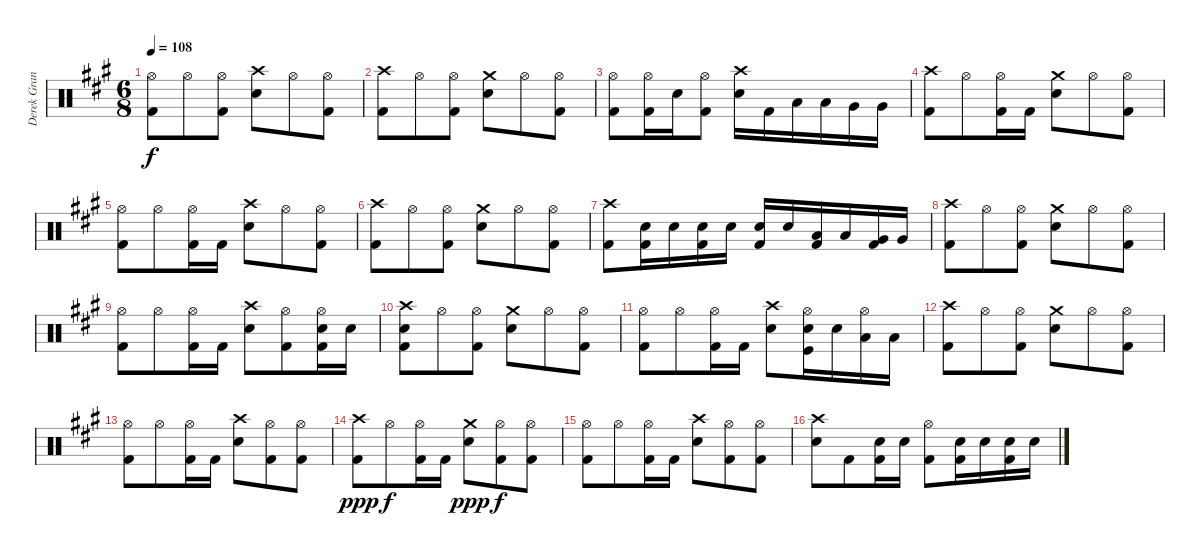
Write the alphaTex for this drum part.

\track ("Derek Grant - Drums" "Derek Gran") {instrument percussion}
\staff {score}
\articulation defaults
\ts (6 8)
\tempo 108
\clef neutral
\ks a
("Kick (hit) 2" "Hi-Hat (open)").8{dy f} "Hi-Hat (open)".8 ("Hi-Hat (open)" "Kick (hit) 2").8 ("Snare (hit) 2" "Crash high (hit)").8 "Hi-Hat (open)".8 ("Hi-Hat (open)" "Kick (hit) 2").8 |
("Kick (hit) 2" "Crash high (hit)").8 "Hi-Hat (open)".8 ("Hi-Hat (open)" "Kick (hit) 2").8 ("Snare (hit) 2" "Crash medium (hit)").8 "Hi-Hat (open)".8 ("Hi-Hat (open)" "Kick (hit) 2").8 |
("Kick (hit) 2" "Hi-Hat (open)").8 ("Kick (hit) 2" "Hi-Hat (open)").16 "Snare (hit) 2".16 ("Hi-Hat (open)" "Kick (hit) 2").8 ("Snare (hit) 2" "Crash high (hit)").16 "Kick (hit) 2".16 "Low Tom (hit)".16 "Low Tom (hit)".16 "Very Low Tom (hit)".16 "Very Low Tom (hit)".16 |
("Kick (hit) 2" "Crash high (hit)").8 "Hi-Hat (open)".8 ("Hi-Hat (open)" "Kick (hit) 2").16 "Kick (hit) 2".16 ("Snare (hit) 2" "Crash medium (hit)").8 "Hi-Hat (open)".8 ("Hi-Hat (open)" "Kick (hit) 2").8 |
("Kick (hit) 2" "Hi-Hat (open)").8 "Hi-Hat (open)".8 ("Hi-Hat (open)" "Kick (hit) 2").16 "Kick (hit) 2".16 ("Snare (hit) 2" "Crash high (hit)").8 "Hi-Hat (open)".8 ("Hi-Hat (open)" "Kick (hit) 2").8 |
("Kick (hit) 2" "Crash high (hit)").8 "Hi-Hat (open)".8 ("Hi-Hat (open)" "Kick (hit) 2").8 ("Snare (hit) 2" "Crash medium (hit)").8 "Hi-Hat (open)".8 ("Hi-Hat (open)" "Kick (hit) 2").8 |
("Kick (hit) 2" "Crash high (hit)").8 ("Snare (hit) 2" "Kick (hit) 2").16 "Snare (hit) 2".16 ("Snare (hit) 2" "Kick (hit) 2").16 "Snare (hit) 2".16 ("Snare (hit) 2" "Kick (hit) 2").16 "Snare (hit) 2".16 ("Low Tom (hit)" "Kick (hit) 2").16 "Low Tom (hit)".16 ("Very Low Tom (hit)" "Kick (hit) 2").16 "Very Low Tom (hit)".16 |
("Kick (hit) 2" "Crash high (hit)").8 "Hi-Hat (open)".8 ("Hi-Hat (open)" "Kick (hit) 2").8 ("Snare (hit) 2" "Crash medium (hit)").8 "Hi-Hat (open)".8 ("Hi-Hat (open)" "Kick (hit) 2").8 |
("Kick (hit) 2" "Hi-Hat (open)").8 "Hi-Hat (open)".8 ("Hi-Hat (open)" "Kick (hit) 2").16 "Kick (hit) 2".16 ("Snare (hit) 2" "Crash high (hit)").8 ("Hi-Hat (open)" "Kick (hit) 2").8 ("Hi-Hat (open)" "Kick (hit) 2" "Snare (hit) 2").16 "Snare (hit) 2".16 |
("Kick (hit) 2" "Crash high (hit)" "Snare (hit) 2").8 "Hi-Hat (open)".8 ("Hi-Hat (open)" "Kick (hit) 2").8 ("Snare (hit) 2" "Crash medium (hit)").8 "Hi-Hat (open)".8 ("Hi-Hat (open)" "Kick (hit) 2").8 |
("Kick (hit) 2" "Hi-Hat (open)").8 "Hi-Hat (open)".8 ("Hi-Hat (open)" "Kick (hit) 2").16 "Kick (hit) 2".16 ("Snare (hit) 2" "Crash high (hit)").8 ("Snare (hit) 2" "Hi-Hat (open)" "Kick (hit)").16 "Snare (hit) 2".16 ("Low Tom (hit)" "Hi-Hat (open)").16 "Low Tom (hit)".16 |
("Kick (hit) 2" "Crash high (hit)").8 "Hi-Hat (open)".8 ("Hi-Hat (open)" "Kick (hit) 2").8 ("Snare (hit) 2" "Crash medium (hit)").8 "Hi-Hat (open)".8 ("Hi-Hat (open)" "Kick (hit) 2").8 |
("Kick (hit) 2" "Hi-Hat (open)").8 "Hi-Hat (open)".8 ("Hi-Hat (open)" "Kick (hit) 2").16 "Kick (hit) 2".16 ("Snare (hit) 2" "Crash high (hit)").8 ("Hi-Hat (open)" "Kick (hit) 2").8 ("Hi-Hat (open)" "Kick (hit) 2").8 |
("Kick (hit) 2" "Crash high (hit)").8{dy ppp} "Hi-Hat (open)".8{dy f} ("Hi-Hat (open)" "Kick (hit) 2").16 "Kick (hit) 2".16 ("Snare (hit) 2" "Crash medium (hit)").8{dy ppp} ("Hi-Hat (open)" "Kick (hit) 2").8{dy f} ("Hi-Hat (open)" "Kick (hit) 2").8 |
("Kick (hit) 2" "Hi-Hat (open)").8 "Hi-Hat (open)".8 ("Hi-Hat (open)" "Kick (hit) 2").16 "Kick (hit) 2".16 ("Snare (hit) 2" "Crash high (hit)").8 ("Hi-Hat (open)" "Kick (hit) 2").8 ("Hi-Hat (open)" "Kick (hit) 2").8 |
("Crash high (hit)" "Snare (hit) 2").8 "Kick (hit) 2".8 ("Kick (hit) 2" "Snare (hit) 2").16 "Snare (hit) 2".16 ("Hi-Hat (open)" "Kick (hit) 2").8 ("Snare (hit) 2" "Kick (hit) 2").16 "Snare (hit) 2".16 ("Snare (hit) 2" "Kick (hit) 2").16 "Snare (hit) 2".16
